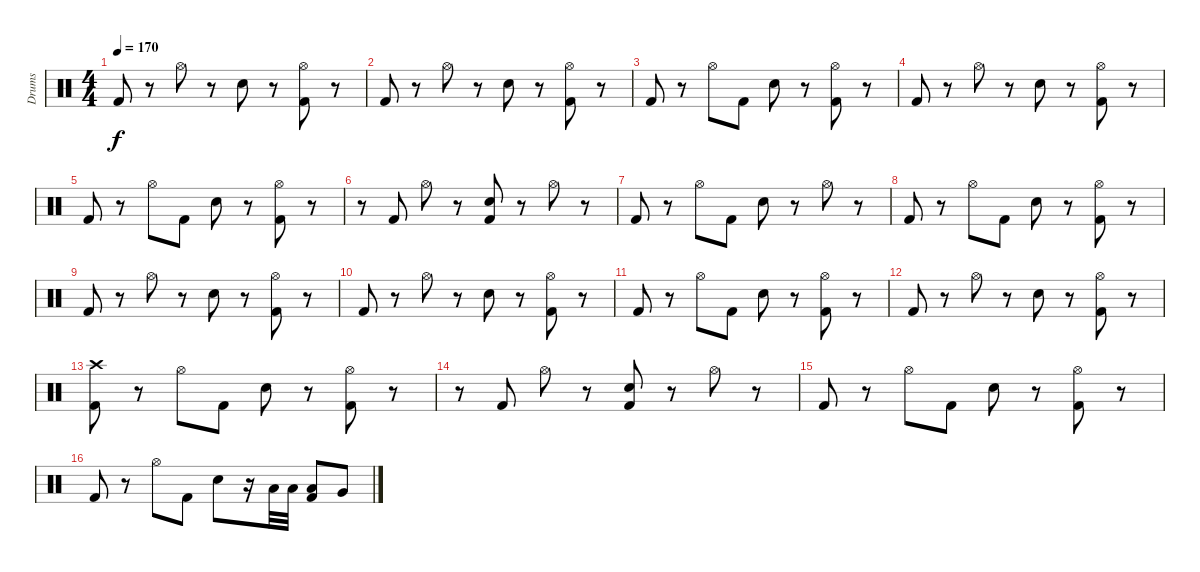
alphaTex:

\track ("Drums" "Drums") {instrument percussion}
\staff {score}
\articulation defaults
\ts (4 4)
\tempo 170
\clef neutral
\ks c "Kick (hit) 2".8{dy f}
r.8 "Hi-Hat (open)".8 r.8 "Electric Snare (hit)".8 r.8 ("Kick (hit) 2" "Hi-Hat (open)").8 r.8 |
"Kick (hit) 2".8 r.8 "Hi-Hat (open)".8 r.8 "Electric Snare (hit)".8 r.8 ("Kick (hit) 2" "Hi-Hat (open)").8 r.8 |
"Kick (hit) 2".8 r.8 "Hi-Hat (open)".8 "Kick (hit) 2".8 "Electric Snare (hit)".8 r.8 ("Kick (hit) 2" "Hi-Hat (open)").8 r.8 |
"Kick (hit) 2".8 r.8 "Hi-Hat (open)".8 r.8 "Electric Snare (hit)".8 r.8 ("Kick (hit) 2" "Hi-Hat (open)").8 r.8 |
"Kick (hit) 2".8 r.8 "Hi-Hat (open)".8 "Kick (hit) 2".8 "Electric Snare (hit)".8 r.8 ("Kick (hit) 2" "Hi-Hat (open)").8 r.8 |
r.8 "Kick (hit) 2".8 "Hi-Hat (open)".8 r.8 ("Kick (hit) 2" "Electric Snare (hit)").8 r.8 "Hi-Hat (open)".8 r.8 |
"Kick (hit) 2".8 r.8 "Hi-Hat (open)".8 "Kick (hit) 2".8 "Electric Snare (hit)".8 r.8 "Hi-Hat (open)".8 r.8 |
"Kick (hit) 2".8 r.8 "Hi-Hat (open)".8 "Kick (hit) 2".8 "Electric Snare (hit)".8 r.8 ("Kick (hit) 2" "Hi-Hat (open)").8 r.8 |
"Kick (hit) 2".8 r.8 "Hi-Hat (open)".8 r.8 "Electric Snare (hit)".8 r.8 ("Kick (hit) 2" "Hi-Hat (open)").8 r.8 |
"Kick (hit) 2".8 r.8 "Hi-Hat (open)".8 r.8 "Electric Snare (hit)".8 r.8 ("Kick (hit) 2" "Hi-Hat (open)").8 r.8 |
"Kick (hit) 2".8 r.8 "Hi-Hat (open)".8 "Kick (hit) 2".8 "Electric Snare (hit)".8 r.8 ("Kick (hit) 2" "Hi-Hat (open)").8 r.8 |
"Kick (hit) 2".8 r.8 "Hi-Hat (open)".8 r.8 "Electric Snare (hit)".8 r.8 ("Kick (hit) 2" "Hi-Hat (open)").8 r.8 |
("Kick (hit) 2" "Crash high (hit)").8 r.8 "Hi-Hat (open)".8 "Kick (hit) 2".8 "Electric Snare (hit)".8 r.8 ("Kick (hit) 2" "Hi-Hat (open)").8 r.8 |
r.8 "Kick (hit) 2".8 "Hi-Hat (open)".8 r.8 ("Kick (hit) 2" "Electric Snare (hit)").8 r.8 "Hi-Hat (open)".8 r.8 |
"Kick (hit) 2".8 r.8 "Hi-Hat (open)".8 "Kick (hit) 2".8 "Electric Snare (hit)".8 r.8 ("Kick (hit) 2" "Hi-Hat (open)").8 r.8 |
"Kick (hit) 2".8 r.8 "Hi-Hat (open)".8 "Kick (hit) 2".8 "Electric Snare (hit)".8 r.16 "Low Tom (hit)".32 "Low Tom (hit)".32 ("Kick (hit) 2" "Low Tom (hit)").8 "Very Low Tom (hit)".8
